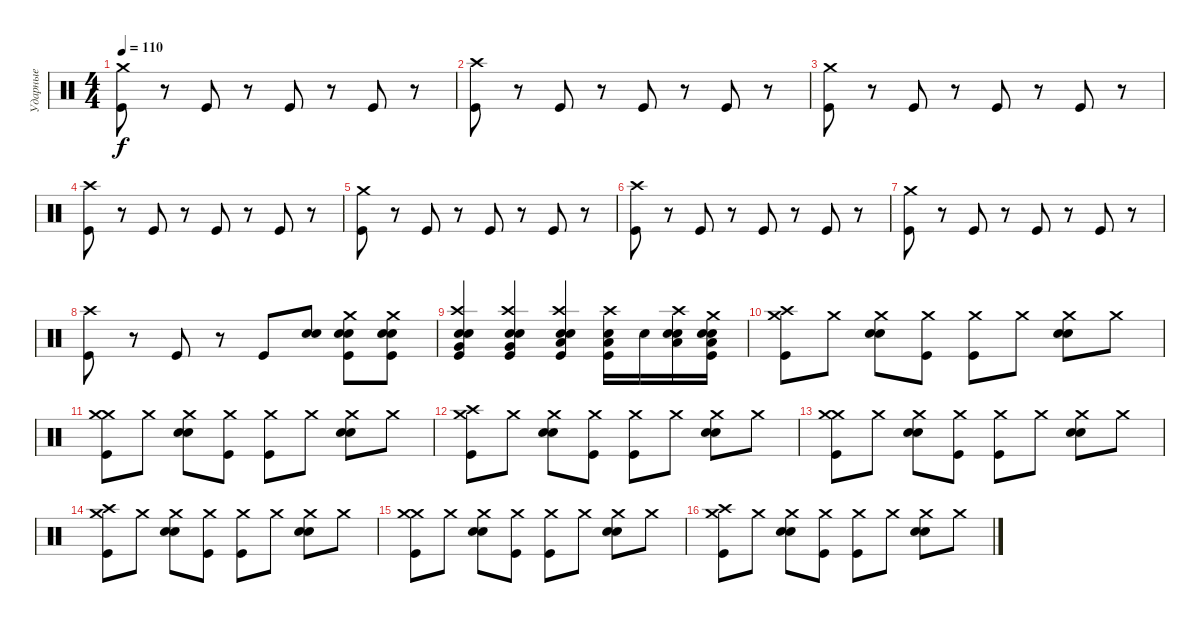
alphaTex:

\track ("Ударные" "Ударные") {instrument percussion}
\staff {score}
\articulation defaults
\ts (4 4)
\tempo 110
\clef neutral
\ks c
("Crash medium (hit)" "Kick (hit)").8{dy f} r.8 "Kick (hit)".8 r.8 "Kick (hit)".8 r.8 "Kick (hit)".8 r.8 |
("Crash high (hit)" "Kick (hit)").8 r.8 "Kick (hit)".8 r.8 "Kick (hit)".8 r.8 "Kick (hit)".8 r.8 |
("Crash medium (hit)" "Kick (hit)").8 r.8 "Kick (hit)".8 r.8 "Kick (hit)".8 r.8 "Kick (hit)".8 r.8 |
("Crash high (hit)" "Kick (hit)").8 r.8 "Kick (hit)".8 r.8 "Kick (hit)".8 r.8 "Kick (hit)".8 r.8 |
("Crash medium (hit)" "Kick (hit)").8 r.8 "Kick (hit)".8 r.8 "Kick (hit)".8 r.8 "Kick (hit)".8 r.8 |
("Crash high (hit)" "Kick (hit)").8 r.8 "Kick (hit)".8 r.8 "Kick (hit)".8 r.8 "Kick (hit)".8 r.8 |
("Crash medium (hit)" "Kick (hit)").8 r.8 "Kick (hit)".8 r.8 "Kick (hit)".8 r.8 "Kick (hit)".8 r.8 |
("Crash high (hit)" "Kick (hit)").8 r.8 "Kick (hit)".8 r.8 "Kick (hit)".8 ("Snare (hit) 2" "Snare (hit) 2").8 ("Crash medium (hit)" "Snare (hit) 2" "Snare (hit) 2" "Kick (hit)").8 ("Crash medium (hit)" "Snare (hit) 2" "Snare (hit) 2" "Kick (hit)").8 |
("Crash high (hit)" "Snare (hit) 2" "Snare (hit) 2" "Very Low Tom (hit)" "Kick (hit)").4 ("Crash high (hit)" "Snare (hit) 2" "Snare (hit) 2" "Very Low Tom (hit)" "Kick (hit)").4 ("Crash high (hit)" "Electric Snare (hit)" "Electric Snare (hit)" "Low Floor Tom (hit)" "Kick (hit)").4 ("Crash high (hit)" "Snare (hit) 2" "Low Floor Tom (hit)" "Kick (hit)").16 "Electric Snare (hit)".16 ("Crash high (hit)" "Electric Snare (hit)" "Electric Snare (hit)" "Low Floor Tom (hit)").16 ("Crash medium (hit)" "Electric Snare (hit)" "Electric Snare (hit)" "Low Floor Tom (hit)" "Kick (hit)").16 |
("Crash medium (hit)" "Crash high (hit)" "Kick (hit)").8 "Crash medium (hit)".8 ("Crash medium (hit)" "Snare (hit) 2" "Snare (hit) 2").8 ("Crash medium (hit)" "Kick (hit)").8 ("Crash medium (hit)" "Kick (hit)").8 "Crash medium (hit)".8 ("Crash medium (hit)" "Snare (hit) 2" "Snare (hit) 2").8 "Crash medium (hit)".8 |
("Crash medium (hit)" "Crash medium (hit)" "Kick (hit)").8 "Crash medium (hit)".8 ("Crash medium (hit)" "Snare (hit) 2" "Snare (hit) 2").8 ("Crash medium (hit)" "Kick (hit)").8 ("Crash medium (hit)" "Kick (hit)").8 "Crash medium (hit)".8 ("Crash medium (hit)" "Snare (hit) 2" "Snare (hit) 2").8 "Crash medium (hit)".8 |
("Crash medium (hit)" "Crash high (hit)" "Kick (hit)").8 "Crash medium (hit)".8 ("Crash medium (hit)" "Snare (hit) 2" "Snare (hit) 2").8 ("Crash medium (hit)" "Kick (hit)").8 ("Crash medium (hit)" "Kick (hit)").8 "Crash medium (hit)".8 ("Crash medium (hit)" "Snare (hit) 2" "Snare (hit) 2").8 "Crash medium (hit)".8 |
("Crash medium (hit)" "Crash medium (hit)" "Kick (hit)").8 "Crash medium (hit)".8 ("Crash medium (hit)" "Snare (hit) 2" "Snare (hit) 2").8 ("Crash medium (hit)" "Kick (hit)").8 ("Crash medium (hit)" "Kick (hit)").8 "Crash medium (hit)".8 ("Crash medium (hit)" "Snare (hit) 2" "Snare (hit) 2").8 "Crash medium (hit)".8 |
("Crash medium (hit)" "Crash high (hit)" "Kick (hit)").8 "Crash medium (hit)".8 ("Crash medium (hit)" "Snare (hit) 2" "Snare (hit) 2").8 ("Crash medium (hit)" "Kick (hit)").8 ("Crash medium (hit)" "Kick (hit)").8 "Crash medium (hit)".8 ("Crash medium (hit)" "Snare (hit) 2" "Snare (hit) 2").8 "Crash medium (hit)".8 |
("Crash medium (hit)" "Crash medium (hit)" "Kick (hit)").8 "Crash medium (hit)".8 ("Crash medium (hit)" "Snare (hit) 2" "Snare (hit) 2").8 ("Crash medium (hit)" "Kick (hit)").8 ("Crash medium (hit)" "Kick (hit)").8 "Crash medium (hit)".8 ("Crash medium (hit)" "Snare (hit) 2" "Snare (hit) 2").8 "Crash medium (hit)".8 |
("Crash medium (hit)" "Crash high (hit)" "Kick (hit)").8 "Crash medium (hit)".8 ("Crash medium (hit)" "Snare (hit) 2" "Snare (hit) 2").8 ("Crash medium (hit)" "Kick (hit)").8 ("Crash medium (hit)" "Kick (hit)").8 "Crash medium (hit)".8 ("Crash medium (hit)" "Snare (hit) 2" "Snare (hit) 2").8 "Crash medium (hit)".8
